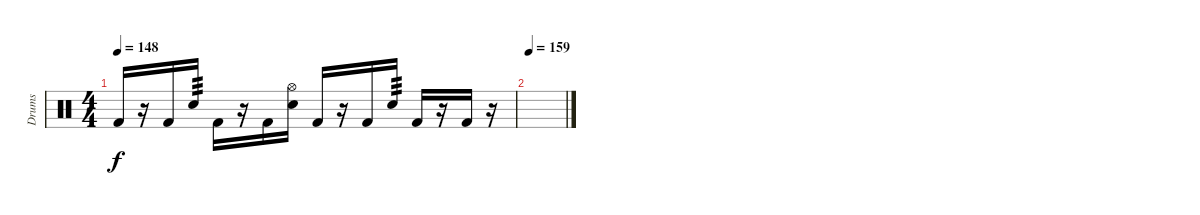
\track ("Drums" "Drums") {instrument percussion}
\staff {score}
\articulation defaults
\ts (4 4)
\tempo 148
\clef neutral
\ks c "Kick (hit) 2".16{dy f}
r.16 "Kick (hit) 2".16 "Electric Snare (hit)".16{tp 3} "Kick (hit) 2".16 r.16 "Kick (hit) 2".16 ("Hi-Hat (open)" "Electric Snare (hit)").16 "Kick (hit) 2".16 r.16 "Kick (hit) 2".16 "Electric Snare (hit)".16{tp 3} "Kick (hit) 2".16 r.16 "Kick (hit) 2".16 r.16 |
\tempo 158
\tempo 159
